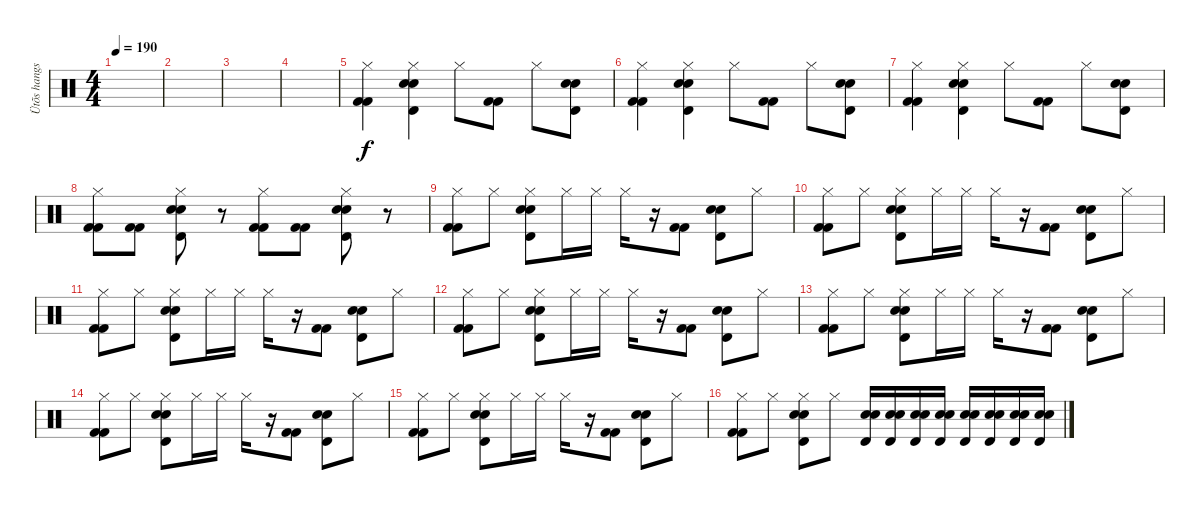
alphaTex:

\track ("Ütõs hangszer" "Ütõs hangs") {instrument percussion}
\staff {score}
\articulation defaults
\ts (4 4)
\tempo 190
\clef neutral
\ks c
|
|
|
|
("Hi-Hat (closed)" "Kick (hit) 2" "Kick (hit) 2").4 ("Hi-Hat (closed)" "Timbale high (hit)" "Electric Snare (hit)" "Electric Snare (hit)").4 "Hi-Hat (closed)".8 ("Kick (hit) 2" "Kick (hit) 2").8 "Hi-Hat (closed)".8 ("Timbale high (hit)" "Electric Snare (hit)" "Electric Snare (hit)").8 |
("Hi-Hat (closed)" "Kick (hit) 2" "Kick (hit) 2").4 ("Hi-Hat (closed)" "Timbale high (hit)" "Electric Snare (hit)" "Electric Snare (hit)").4 "Hi-Hat (closed)".8 ("Kick (hit) 2" "Kick (hit) 2").8 "Hi-Hat (closed)".8 ("Timbale high (hit)" "Electric Snare (hit)" "Electric Snare (hit)").8 |
("Hi-Hat (closed)" "Kick (hit) 2" "Kick (hit) 2").4 ("Hi-Hat (closed)" "Timbale high (hit)" "Electric Snare (hit)" "Electric Snare (hit)").4 "Hi-Hat (closed)".8 ("Kick (hit) 2" "Kick (hit) 2").8 "Hi-Hat (closed)".8 ("Timbale high (hit)" "Electric Snare (hit)" "Electric Snare (hit)").8 |
("Hi-Hat (closed)" "Kick (hit) 2" "Kick (hit) 2").8 ("Kick (hit) 2" "Kick (hit) 2").8 ("Hi-Hat (closed)" "Timbale high (hit)" "Electric Snare (hit)" "Electric Snare (hit)").8 r.8 ("Hi-Hat (closed)" "Kick (hit) 2" "Kick (hit) 2").8 ("Kick (hit) 2" "Kick (hit) 2").8 ("Hi-Hat (closed)" "Timbale high (hit)" "Electric Snare (hit)" "Electric Snare (hit)").8 r.8 |
("Hi-Hat (closed)" "Kick (hit) 2" "Kick (hit) 2").8 "Hi-Hat (closed)".8 ("Hi-Hat (closed)" "Timbale high (hit)" "Electric Snare (hit)" "Electric Snare (hit)").8 "Hi-Hat (closed)".16 "Hi-Hat (closed)".16 "Hi-Hat (closed)".16 r.16 ("Kick (hit) 2" "Kick (hit) 2").8 ("Timbale high (hit)" "Electric Snare (hit)" "Electric Snare (hit)").8 "Hi-Hat (closed)".8 |
("Hi-Hat (closed)" "Kick (hit) 2" "Kick (hit) 2").8 "Hi-Hat (closed)".8 ("Hi-Hat (closed)" "Timbale high (hit)" "Electric Snare (hit)" "Electric Snare (hit)").8 "Hi-Hat (closed)".16 "Hi-Hat (closed)".16 "Hi-Hat (closed)".16 r.16 ("Kick (hit) 2" "Kick (hit) 2").8 ("Timbale high (hit)" "Electric Snare (hit)" "Electric Snare (hit)").8 "Hi-Hat (closed)".8 |
("Hi-Hat (closed)" "Kick (hit) 2" "Kick (hit) 2").8 "Hi-Hat (closed)".8 ("Hi-Hat (closed)" "Timbale high (hit)" "Electric Snare (hit)" "Electric Snare (hit)").8 "Hi-Hat (closed)".16 "Hi-Hat (closed)".16 "Hi-Hat (closed)".16 r.16 ("Kick (hit) 2" "Kick (hit) 2").8 ("Timbale high (hit)" "Electric Snare (hit)" "Electric Snare (hit)").8 "Hi-Hat (closed)".8 |
("Hi-Hat (closed)" "Kick (hit) 2" "Kick (hit) 2").8 "Hi-Hat (closed)".8 ("Hi-Hat (closed)" "Timbale high (hit)" "Electric Snare (hit)" "Electric Snare (hit)").8 "Hi-Hat (closed)".16 "Hi-Hat (closed)".16 "Hi-Hat (closed)".16 r.16 ("Kick (hit) 2" "Kick (hit) 2").8 ("Timbale high (hit)" "Electric Snare (hit)" "Electric Snare (hit)").8 "Hi-Hat (closed)".8 |
("Hi-Hat (closed)" "Kick (hit) 2" "Kick (hit) 2").8 "Hi-Hat (closed)".8 ("Hi-Hat (closed)" "Timbale high (hit)" "Electric Snare (hit)" "Electric Snare (hit)").8 "Hi-Hat (closed)".16 "Hi-Hat (closed)".16 "Hi-Hat (closed)".16 r.16 ("Kick (hit) 2" "Kick (hit) 2").8 ("Timbale high (hit)" "Electric Snare (hit)" "Electric Snare (hit)").8 "Hi-Hat (closed)".8 |
("Hi-Hat (closed)" "Kick (hit) 2" "Kick (hit) 2").8 "Hi-Hat (closed)".8 ("Hi-Hat (closed)" "Timbale high (hit)" "Electric Snare (hit)" "Electric Snare (hit)").8 "Hi-Hat (closed)".16 "Hi-Hat (closed)".16 "Hi-Hat (closed)".16 r.16 ("Kick (hit) 2" "Kick (hit) 2").8 ("Timbale high (hit)" "Electric Snare (hit)" "Electric Snare (hit)").8 "Hi-Hat (closed)".8 |
("Hi-Hat (closed)" "Kick (hit) 2" "Kick (hit) 2").8 "Hi-Hat (closed)".8 ("Hi-Hat (closed)" "Timbale high (hit)" "Electric Snare (hit)" "Electric Snare (hit)").8 "Hi-Hat (closed)".16 "Hi-Hat (closed)".16 "Hi-Hat (closed)".16 r.16 ("Kick (hit) 2" "Kick (hit) 2").8 ("Timbale high (hit)" "Electric Snare (hit)" "Electric Snare (hit)").8 "Hi-Hat (closed)".8 |
("Hi-Hat (closed)" "Kick (hit) 2" "Kick (hit) 2").8 "Hi-Hat (closed)".8 ("Hi-Hat (closed)" "Timbale high (hit)" "Electric Snare (hit)" "Electric Snare (hit)").8 "Hi-Hat (closed)".8 ("Timbale high (hit)" "Electric Snare (hit)" "Electric Snare (hit)").16 ("Timbale high (hit)" "Electric Snare (hit)" "Electric Snare (hit)").16 ("Timbale high (hit)" "Electric Snare (hit)" "Electric Snare (hit)").16 ("Timbale high (hit)" "Electric Snare (hit)" "Electric Snare (hit)").16 ("Timbale high (hit)" "Electric Snare (hit)" "Electric Snare (hit)").16 ("Timbale high (hit)" "Electric Snare (hit)" "Electric Snare (hit)").16 ("Timbale high (hit)" "Electric Snare (hit)" "Electric Snare (hit)").16 ("Timbale high (hit)" "Electric Snare (hit)" "Electric Snare (hit)").16
